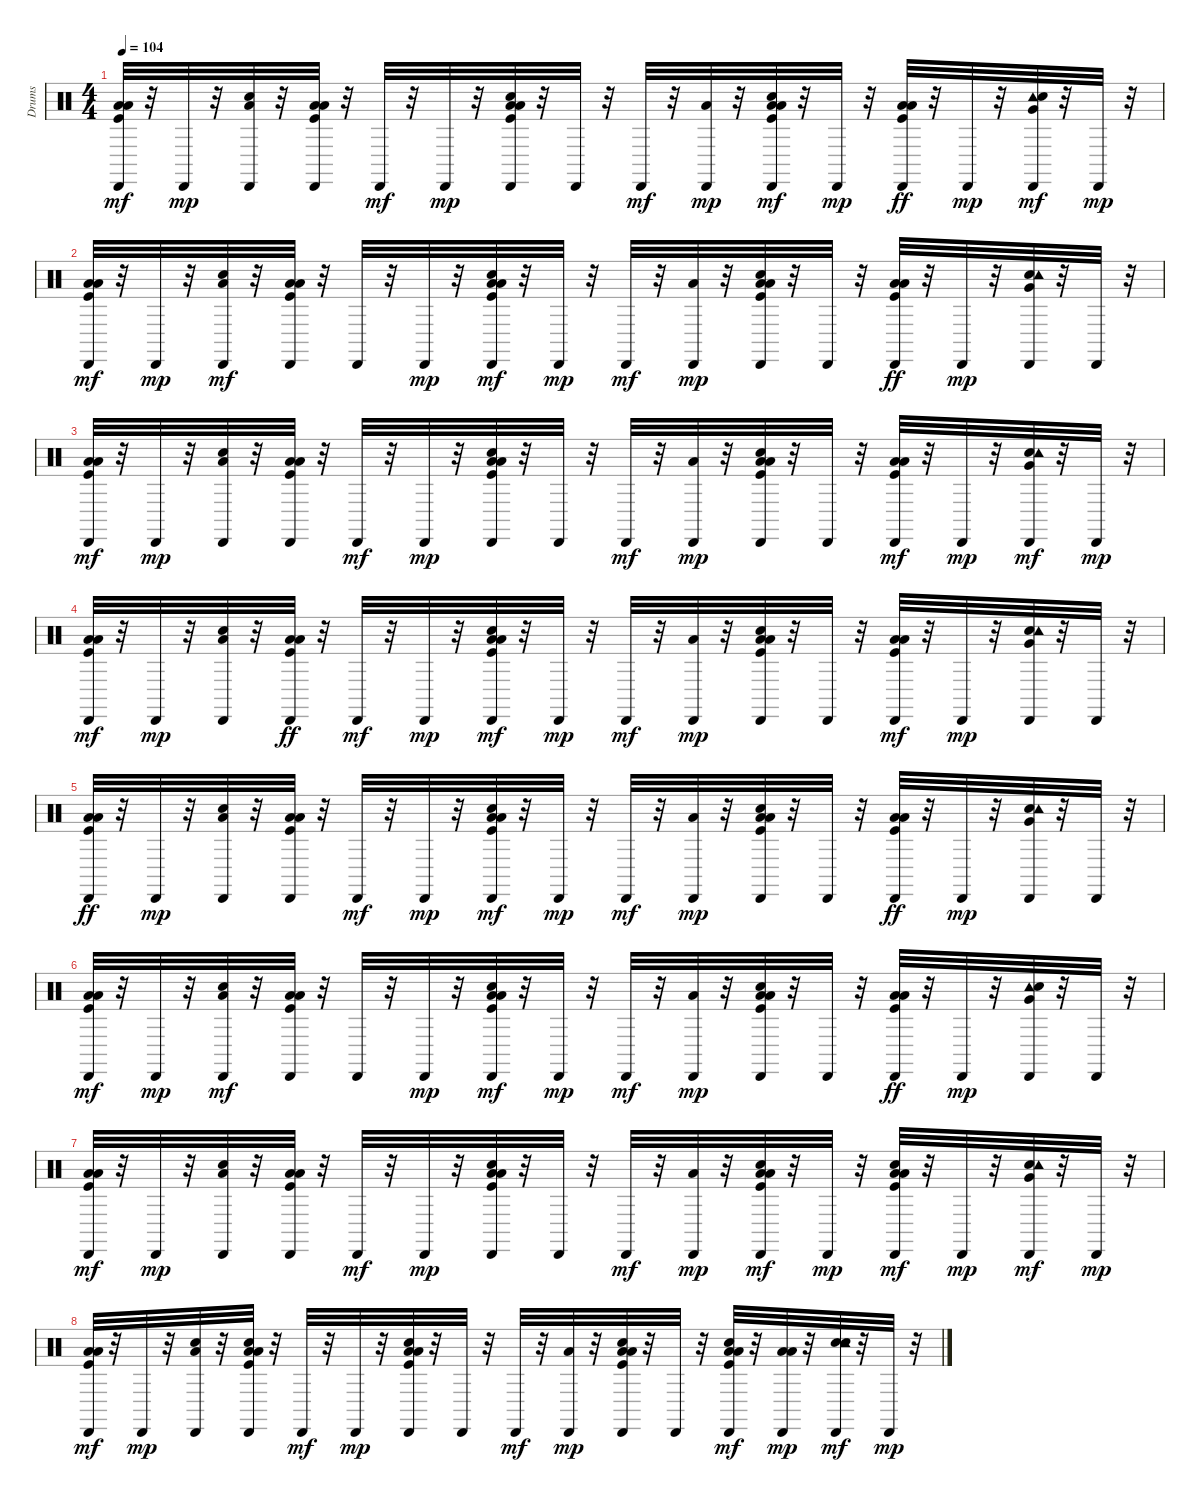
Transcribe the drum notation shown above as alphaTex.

\track ("Drums" "Drums") {instrument percussion}
\staff {score}
\articulation defaults
\ts (4 4)
\tempo 104
\clef neutral
\ks c
("Low Floor Tom (hit)" "Kick (hit)" "Low Tom (hit)" "Cabasa (hit)").32{dy mf} r.32 "Cabasa (hit)".32{dy mp} r.32 ("Low Tom (hit)" "Hand Clap (hit)" "Cabasa (hit)").32 r.32 ("Low Tom (hit)" "Kick (hit)" "Cabasa (hit)" "Low Floor Tom (hit)").32 r.32 "Cabasa (hit)".32{dy mf} r.32 "Cabasa (hit)".32{dy mp} r.32 ("Low Tom (hit)" "Low Floor Tom (hit)" "Kick (hit)" "Hand Clap (hit)" "Cabasa (hit)").32 r.32 "Cabasa (hit)".32 r.32 "Cabasa (hit)".32{dy mf} r.32 ("Low Tom (hit)" "Cabasa (hit)").32{dy mp} r.32 ("Low Tom (hit)" "Hand Clap (hit)" "Low Floor Tom (hit)" "Kick (hit)" "Cabasa (hit)").32{dy mf} r.32 "Cabasa (hit)".32{dy mp} r.32 ("Low Tom (hit)" "Kick (hit)" "Cabasa (hit)" "Low Floor Tom (hit)").32{dy ff} r.32 "Cabasa (hit)".32{dy mp} r.32 ("Tambourine (hit)" "Cabasa (hit)" "Hand Clap (hit)" "Very Low Tom (hit)").32{dy mf} r.32 "Cabasa (hit)".32{dy mp} r.32 |
("Cabasa (hit)" "Low Floor Tom (hit)" "Low Tom (hit)" "Kick (hit)").32{dy mf} r.32 "Cabasa (hit)".32{dy mp} r.32 ("Hand Clap (hit)" "Cabasa (hit)" "Low Tom (hit)").32{dy mf} r.32 ("Cabasa (hit)" "Low Tom (hit)" "Low Floor Tom (hit)" "Kick (hit)").32 r.32 "Cabasa (hit)".32 r.32 "Cabasa (hit)".32{dy mp} r.32 ("Hand Clap (hit)" "Low Tom (hit)" "Low Floor Tom (hit)" "Cabasa (hit)" "Kick (hit)").32{dy mf} r.32 "Cabasa (hit)".32{dy mp} r.32 "Cabasa (hit)".32{dy mf} r.32 ("Cabasa (hit)" "Low Tom (hit)").32{dy mp} r.32 ("Hand Clap (hit)" "Low Tom (hit)" "Low Floor Tom (hit)" "Kick (hit)" "Cabasa (hit)").32 r.32 "Cabasa (hit)".32 r.32 ("Kick (hit)" "Cabasa (hit)" "Low Tom (hit)" "Low Floor Tom (hit)").32{dy ff} r.32 "Cabasa (hit)".32{dy mp} r.32 ("Hand Clap (hit)" "Cabasa (hit)" "Very Low Tom (hit)" "Tambourine (hit)").32 r.32 "Cabasa (hit)".32 r.32 |
("Low Floor Tom (hit)" "Cabasa (hit)" "Kick (hit)" "Low Tom (hit)").32{dy mf} r.32 "Cabasa (hit)".32{dy mp} r.32 ("Hand Clap (hit)" "Cabasa (hit)" "Low Tom (hit)").32 r.32 ("Kick (hit)" "Cabasa (hit)" "Low Floor Tom (hit)" "Low Tom (hit)").32 r.32 "Cabasa (hit)".32{dy mf} r.32 "Cabasa (hit)".32{dy mp} r.32 ("Hand Clap (hit)" "Low Floor Tom (hit)" "Low Tom (hit)" "Kick (hit)" "Cabasa (hit)").32 r.32 "Cabasa (hit)".32 r.32 "Cabasa (hit)".32{dy mf} r.32 ("Cabasa (hit)" "Low Tom (hit)").32{dy mp} r.32 ("Low Floor Tom (hit)" "Hand Clap (hit)" "Low Tom (hit)" "Kick (hit)" "Cabasa (hit)").32 r.32 "Cabasa (hit)".32 r.32 ("Low Floor Tom (hit)" "Low Tom (hit)" "Kick (hit)" "Cabasa (hit)").32{dy mf} r.32 "Cabasa (hit)".32{dy mp} r.32 ("Hand Clap (hit)" "Very Low Tom (hit)" "Cabasa (hit)" "Tambourine (hit)").32{dy mf} r.32 "Cabasa (hit)".32{dy mp} r.32 |
("Cabasa (hit)" "Low Tom (hit)" "Low Floor Tom (hit)" "Kick (hit)").32{dy mf} r.32 "Cabasa (hit)".32{dy mp} r.32 ("Low Tom (hit)" "Hand Clap (hit)" "Cabasa (hit)").32 r.32 ("Low Tom (hit)" "Kick (hit)" "Cabasa (hit)" "Low Floor Tom (hit)").32{dy ff} r.32 "Cabasa (hit)".32{dy mf} r.32 "Cabasa (hit)".32{dy mp} r.32 ("Hand Clap (hit)" "Low Tom (hit)" "Kick (hit)" "Low Floor Tom (hit)" "Cabasa (hit)").32{dy mf} r.32 "Cabasa (hit)".32{dy mp} r.32 "Cabasa (hit)".32{dy mf} r.32 ("Low Tom (hit)" "Cabasa (hit)").32{dy mp} r.32 ("Hand Clap (hit)" "Low Tom (hit)" "Low Floor Tom (hit)" "Kick (hit)" "Cabasa (hit)").32 r.32 "Cabasa (hit)".32 r.32 ("Low Floor Tom (hit)" "Low Tom (hit)" "Kick (hit)" "Cabasa (hit)").32{dy mf} r.32 "Cabasa (hit)".32{dy mp} r.32 ("Hand Clap (hit)" "Very Low Tom (hit)" "Tambourine (hit)" "Cabasa (hit)").32 r.32 "Cabasa (hit)".32 r.32 |
("Low Floor Tom (hit)" "Kick (hit)" "Cabasa (hit)" "Low Tom (hit)").32{dy ff} r.32 "Cabasa (hit)".32{dy mp} r.32 ("Hand Clap (hit)" "Low Tom (hit)" "Cabasa (hit)").32 r.32 ("Low Tom (hit)" "Kick (hit)" "Low Floor Tom (hit)" "Cabasa (hit)").32 r.32 "Cabasa (hit)".32{dy mf} r.32 "Cabasa (hit)".32{dy mp} r.32 ("Hand Clap (hit)" "Low Tom (hit)" "Low Floor Tom (hit)" "Kick (hit)" "Cabasa (hit)").32{dy mf} r.32 "Cabasa (hit)".32{dy mp} r.32 "Cabasa (hit)".32{dy mf} r.32 ("Low Tom (hit)" "Cabasa (hit)").32{dy mp} r.32 ("Low Tom (hit)" "Hand Clap (hit)" "Low Floor Tom (hit)" "Kick (hit)" "Cabasa (hit)").32 r.32 "Cabasa (hit)".32 r.32 ("Low Tom (hit)" "Kick (hit)" "Cabasa (hit)" "Low Floor Tom (hit)").32{dy ff} r.32 "Cabasa (hit)".32{dy mp} r.32 ("Hand Clap (hit)" "Tambourine (hit)" "Cabasa (hit)" "Very Low Tom (hit)").32 r.32 "Cabasa (hit)".32 r.32 |
("Low Floor Tom (hit)" "Cabasa (hit)" "Low Tom (hit)" "Kick (hit)").32{dy mf} r.32 "Cabasa (hit)".32{dy mp} r.32 ("Hand Clap (hit)" "Cabasa (hit)" "Low Tom (hit)").32{dy mf} r.32 ("Cabasa (hit)" "Low Tom (hit)" "Low Floor Tom (hit)" "Kick (hit)").32 r.32 "Cabasa (hit)".32 r.32 "Cabasa (hit)".32{dy mp} r.32 ("Hand Clap (hit)" "Low Tom (hit)" "Low Floor Tom (hit)" "Cabasa (hit)" "Kick (hit)").32{dy mf} r.32 "Cabasa (hit)".32{dy mp} r.32 "Cabasa (hit)".32{dy mf} r.32 ("Cabasa (hit)" "Low Tom (hit)").32{dy mp} r.32 ("Hand Clap (hit)" "Low Tom (hit)" "Low Floor Tom (hit)" "Kick (hit)" "Cabasa (hit)").32 r.32 "Cabasa (hit)".32 r.32 ("Cabasa (hit)" "Kick (hit)" "Low Tom (hit)" "Low Floor Tom (hit)").32{dy ff} r.32 "Cabasa (hit)".32{dy mp} r.32 ("Tambourine (hit)" "Hand Clap (hit)" "Cabasa (hit)" "Very Low Tom (hit)").32 r.32 "Cabasa (hit)".32 r.32 |
("Low Floor Tom (hit)" "Cabasa (hit)" "Kick (hit)" "Low Tom (hit)").32{dy mf} r.32 "Cabasa (hit)".32{dy mp} r.32 ("Hand Clap (hit)" "Cabasa (hit)" "Low Tom (hit)").32 r.32 ("Kick (hit)" "Cabasa (hit)" "Low Floor Tom (hit)" "Low Tom (hit)").32 r.32 "Cabasa (hit)".32{dy mf} r.32 "Cabasa (hit)".32{dy mp} r.32 ("Low Floor Tom (hit)" "Low Tom (hit)" "Kick (hit)" "Hand Clap (hit)" "Cabasa (hit)").32 r.32 "Cabasa (hit)".32 r.32 "Cabasa (hit)".32{dy mf} r.32 ("Cabasa (hit)" "Low Tom (hit)").32{dy mp} r.32 ("Low Floor Tom (hit)" "Hand Clap (hit)" "Cabasa (hit)" "Low Tom (hit)" "Kick (hit)").32{dy mf} r.32 "Cabasa (hit)".32{dy mp} r.32 ("Hand Clap (hit)" "Low Floor Tom (hit)" "Low Tom (hit)" "Kick (hit)" "Cabasa (hit)").32{dy mf} r.32 "Cabasa (hit)".32{dy mp} r.32 ("Very Low Tom (hit)" "Hand Clap (hit)" "Cabasa (hit)" "Tambourine (hit)").32{dy mf} r.32 "Cabasa (hit)".32{dy mp} r.32 |
("Low Tom (hit)" "Cabasa (hit)" "Low Floor Tom (hit)" "Kick (hit)").32{dy mf} r.32 "Cabasa (hit)".32{dy mp} r.32 ("Hand Clap (hit)" "Low Tom (hit)" "Cabasa (hit)").32 r.32 ("Low Tom (hit)" "Kick (hit)" "Hand Clap (hit)" "Low Floor Tom (hit)" "Cabasa (hit)").32 r.32 "Cabasa (hit)".32{dy mf} r.32 "Cabasa (hit)".32{dy mp} r.32 ("Low Tom (hit)" "Kick (hit)" "Hand Clap (hit)" "Low Floor Tom (hit)" "Cabasa (hit)").32 r.32 "Cabasa (hit)".32 r.32 "Cabasa (hit)".32{dy mf} r.32 ("Low Tom (hit)" "Cabasa (hit)").32{dy mp} r.32 ("Hand Clap (hit)" "Low Tom (hit)" "Low Floor Tom (hit)" "Kick (hit)" "Cabasa (hit)").32 r.32 "Cabasa (hit)".32 r.32 ("Hand Clap (hit)" "Low Floor Tom (hit)" "Low Tom (hit)" "Kick (hit)" "Cabasa (hit)").32{dy mf} r.32 ("Low Tom (hit)" "Low Floor Tom (hit)" "Cabasa (hit)").32{dy mp} r.32 ("Snare (hit) 2" "Tambourine (hit)" "Hand Clap (hit)" "Cabasa (hit)").32{dy mf} r.32 "Cabasa (hit)".32{dy mp} r.32
